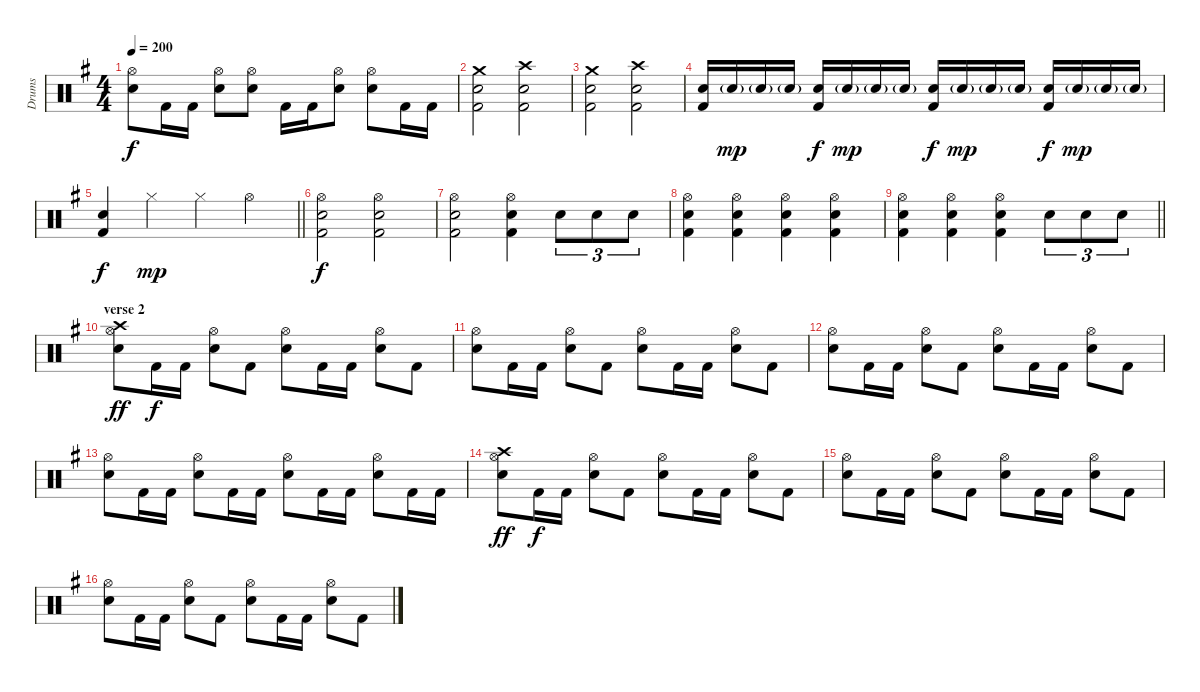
\track ("Drums" "Drums") {instrument percussion}
\staff {score}
\articulation defaults
\ts (4 4)
\tempo 200
\clef neutral
\ks eminor
("Hi-Hat (open)" "Snare (hit) 2").8{dy f} "Kick (hit) 2".16 "Kick (hit) 2".16 ("Hi-Hat (open)" "Snare (hit) 2").8 ("Hi-Hat (open)" "Snare (hit) 2").8 "Kick (hit) 2".16 "Kick (hit) 2".16 ("Hi-Hat (open)" "Snare (hit) 2").8 ("Hi-Hat (open)" "Snare (hit) 2").8 "Kick (hit) 2".16 "Kick (hit) 2".16 |
("Snare (hit) 2" "Crash medium (hit)" "Kick (hit) 2").2 ("Snare (hit) 2" "Crash high (hit)" "Kick (hit) 2").2 |
("Snare (hit) 2" "Crash medium (hit)" "Kick (hit) 2").2 ("Snare (hit) 2" "Crash high (hit)" "Kick (hit) 2").2 |
("Snare (hit) 2" "Kick (hit) 2").16 "Snare (hit) 2"{g}.16{dy mp} "Snare (hit) 2"{g}.16 "Snare (hit) 2"{g}.16 ("Snare (hit) 2" "Kick (hit) 2").16{dy f} "Snare (hit) 2"{g}.16{dy mp} "Snare (hit) 2"{g}.16 "Snare (hit) 2"{g}.16 ("Snare (hit) 2" "Kick (hit) 2").16{dy f} "Snare (hit) 2"{g}.16{dy mp} "Snare (hit) 2"{g}.16 "Snare (hit) 2"{g}.16 ("Snare (hit) 2" "Kick (hit) 2").16{dy f} "Snare (hit) 2"{g}.16{dy mp} "Snare (hit) 2"{g}.16 "Snare (hit) 2"{g}.16 |
\barLineRight lightlight
("Snare (hit) 2" "Kick (hit) 2").4{dy f} "Hi-Hat (closed)".4{dy mp} "Hi-Hat (closed)".4 "Hi-Hat (open)".4 |
("Hi-Hat (open)" "Snare (hit) 2" "Kick (hit) 2").2{dy f} ("Hi-Hat (open)" "Snare (hit) 2" "Kick (hit) 2").2 |
("Hi-Hat (open)" "Snare (hit) 2" "Kick (hit) 2").2 ("Hi-Hat (open)" "Snare (hit) 2" "Kick (hit) 2").4 "Snare (hit) 2".8{tu (3 2)} "Snare (hit) 2".8{tu (3 2)} "Snare (hit) 2".8{tu (3 2)} |
("Hi-Hat (open)" "Snare (hit) 2" "Kick (hit) 2").4 ("Hi-Hat (open)" "Snare (hit) 2" "Kick (hit) 2").4 ("Hi-Hat (open)" "Snare (hit) 2" "Kick (hit) 2").4 ("Hi-Hat (open)" "Snare (hit) 2" "Kick (hit) 2").4 |
\barLineRight lightlight
("Hi-Hat (open)" "Snare (hit) 2" "Kick (hit) 2").4 ("Hi-Hat (open)" "Snare (hit) 2" "Kick (hit) 2").4 ("Hi-Hat (open)" "Snare (hit) 2" "Kick (hit) 2").4 "Snare (hit) 2".8{tu (3 2)} "Snare (hit) 2".8{tu (3 2)} "Snare (hit) 2".8{tu (3 2)} |
\section ("" "verse 2")
("Crash high (hit)" "Hi-Hat (open)" "Snare (hit) 2").8{dy ff} "Kick (hit) 2".16{dy f} "Kick (hit) 2".16 ("Hi-Hat (open)" "Snare (hit) 2").8 "Kick (hit) 2".8 ("Hi-Hat (open)" "Snare (hit) 2").8 "Kick (hit) 2".16 "Kick (hit) 2".16 ("Hi-Hat (open)" "Snare (hit) 2").8 "Kick (hit) 2".8 |
("Hi-Hat (open)" "Snare (hit) 2").8 "Kick (hit) 2".16 "Kick (hit) 2".16 ("Hi-Hat (open)" "Snare (hit) 2").8 "Kick (hit) 2".8 ("Hi-Hat (open)" "Snare (hit) 2").8 "Kick (hit) 2".16 "Kick (hit) 2".16 ("Hi-Hat (open)" "Snare (hit) 2").8 "Kick (hit) 2".8 |
("Hi-Hat (open)" "Snare (hit) 2").8 "Kick (hit) 2".16 "Kick (hit) 2".16 ("Hi-Hat (open)" "Snare (hit) 2").8 "Kick (hit) 2".8 ("Hi-Hat (open)" "Snare (hit) 2").8 "Kick (hit) 2".16 "Kick (hit) 2".16 ("Hi-Hat (open)" "Snare (hit) 2").8 "Kick (hit) 2".8 |
("Hi-Hat (open)" "Snare (hit) 2").8 "Kick (hit) 2".16 "Kick (hit) 2".16 ("Hi-Hat (open)" "Snare (hit) 2").8 "Kick (hit) 2".16 "Kick (hit) 2".16 ("Hi-Hat (open)" "Snare (hit) 2").8 "Kick (hit) 2".16 "Kick (hit) 2".16 ("Hi-Hat (open)" "Snare (hit) 2").8 "Kick (hit) 2".16 "Kick (hit) 2".16 |
("Crash high (hit)" "Hi-Hat (open)" "Snare (hit) 2").8{dy ff} "Kick (hit) 2".16{dy f} "Kick (hit) 2".16 ("Hi-Hat (open)" "Snare (hit) 2").8 "Kick (hit) 2".8 ("Hi-Hat (open)" "Snare (hit) 2").8 "Kick (hit) 2".16 "Kick (hit) 2".16 ("Hi-Hat (open)" "Snare (hit) 2").8 "Kick (hit) 2".8 |
("Hi-Hat (open)" "Snare (hit) 2").8 "Kick (hit) 2".16 "Kick (hit) 2".16 ("Hi-Hat (open)" "Snare (hit) 2").8 "Kick (hit) 2".8 ("Hi-Hat (open)" "Snare (hit) 2").8 "Kick (hit) 2".16 "Kick (hit) 2".16 ("Hi-Hat (open)" "Snare (hit) 2").8 "Kick (hit) 2".8 |
("Hi-Hat (open)" "Snare (hit) 2").8 "Kick (hit) 2".16 "Kick (hit) 2".16 ("Hi-Hat (open)" "Snare (hit) 2").8 "Kick (hit) 2".8 ("Hi-Hat (open)" "Snare (hit) 2").8 "Kick (hit) 2".16 "Kick (hit) 2".16 ("Hi-Hat (open)" "Snare (hit) 2").8 "Kick (hit) 2".8
